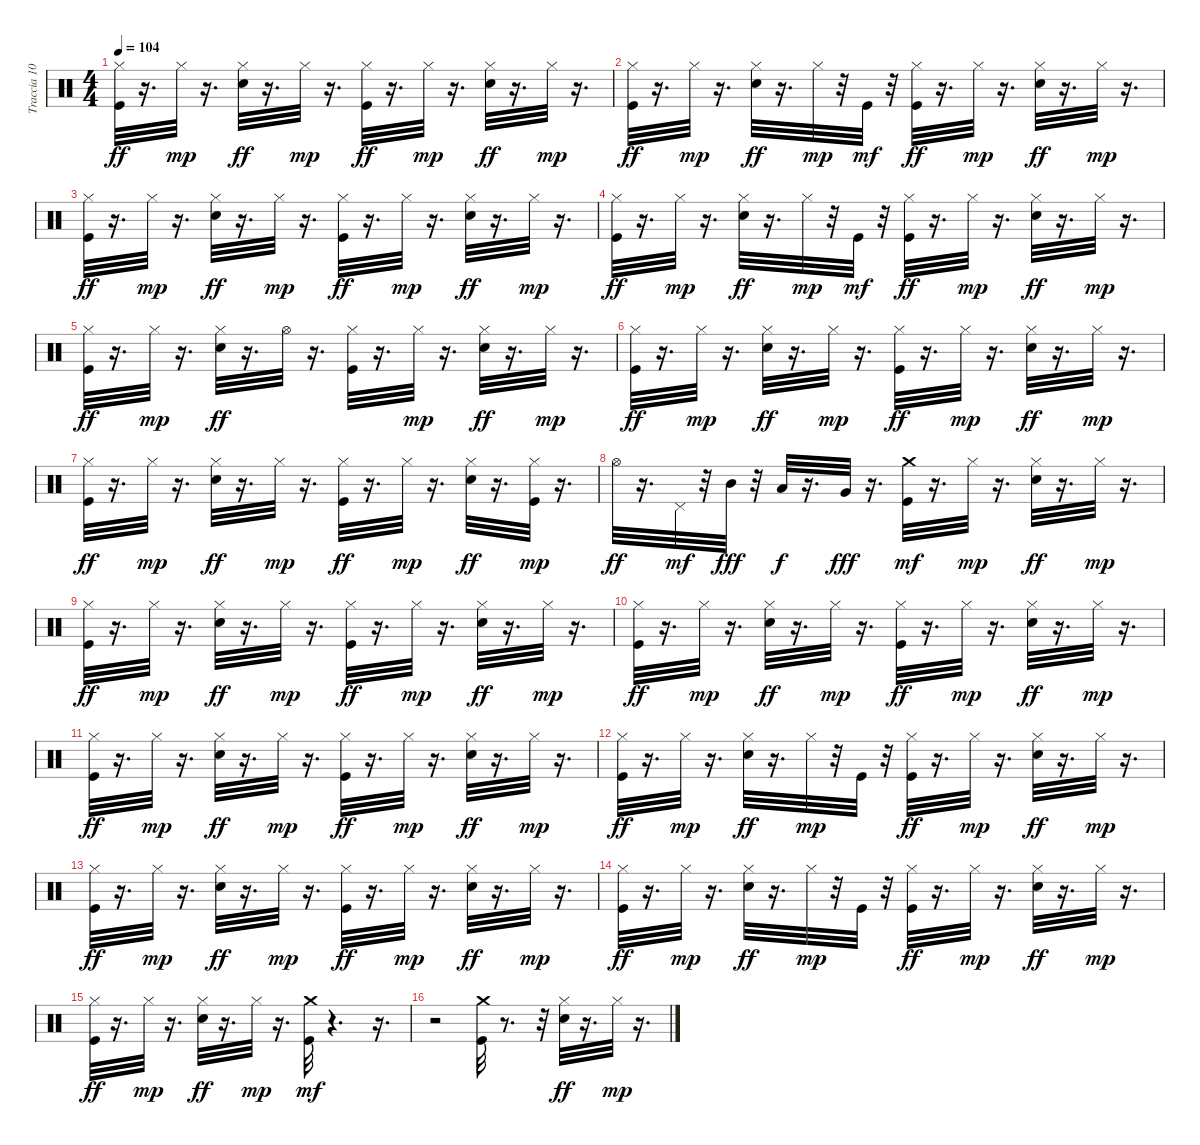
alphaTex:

\track ("Traccia 10" "Traccia 10") {instrument percussion}
\staff {score}
\articulation defaults
\ts (4 4)
\tempo 104
\clef neutral
\ks c
("Kick (hit)" "Hi-Hat (closed)").32{dy ff} r.16{d} "Hi-Hat (closed)".32{dy mp} r.16{d} ("Snare (hit) 2" "Hi-Hat (closed)").32{dy ff} r.16{d} "Hi-Hat (closed)".32{dy mp} r.16{d} ("Kick (hit)" "Hi-Hat (closed)").32{dy ff} r.16{d} "Hi-Hat (closed)".32{dy mp} r.16{d} ("Snare (hit) 2" "Hi-Hat (closed)").32{dy ff} r.16{d} "Hi-Hat (closed)".32{dy mp} r.16{d} |
("Kick (hit)" "Hi-Hat (closed)").32{dy ff} r.16{d} "Hi-Hat (closed)".32{dy mp} r.16{d} ("Snare (hit) 2" "Hi-Hat (closed)").32{dy ff} r.16{d} "Hi-Hat (closed)".32{dy mp} r.32 "Kick (hit)".32{dy mf} r.32 ("Kick (hit)" "Hi-Hat (closed)").32{dy ff} r.16{d} "Hi-Hat (closed)".32{dy mp} r.16{d} ("Snare (hit) 2" "Hi-Hat (closed)").32{dy ff} r.16{d} "Hi-Hat (closed)".32{dy mp} r.16{d} |
("Kick (hit)" "Hi-Hat (closed)").32{dy ff} r.16{d} "Hi-Hat (closed)".32{dy mp} r.16{d} ("Snare (hit) 2" "Hi-Hat (closed)").32{dy ff} r.16{d} "Hi-Hat (closed)".32{dy mp} r.16{d} ("Kick (hit)" "Hi-Hat (closed)").32{dy ff} r.16{d} "Hi-Hat (closed)".32{dy mp} r.16{d} ("Snare (hit) 2" "Hi-Hat (closed)").32{dy ff} r.16{d} "Hi-Hat (closed)".32{dy mp} r.16{d} |
("Kick (hit)" "Hi-Hat (closed)").32{dy ff} r.16{d} "Hi-Hat (closed)".32{dy mp} r.16{d} ("Snare (hit) 2" "Hi-Hat (closed)").32{dy ff} r.16{d} "Hi-Hat (closed)".32{dy mp} r.32 "Kick (hit)".32{dy mf} r.32 ("Kick (hit)" "Hi-Hat (closed)").32{dy ff} r.16{d} "Hi-Hat (closed)".32{dy mp} r.16{d} ("Snare (hit) 2" "Hi-Hat (closed)").32{dy ff} r.16{d} "Hi-Hat (closed)".32{dy mp} r.16{d} |
("Kick (hit)" "Hi-Hat (closed)").32{dy ff} r.16{d} "Hi-Hat (closed)".32{dy mp} r.16{d} ("Snare (hit) 2" "Hi-Hat (closed)").32{dy ff} r.16{d} "Hi-Hat (open)".32 r.16{d} ("Kick (hit)" "Hi-Hat (closed)").32 r.16{d} "Hi-Hat (closed)".32{dy mp} r.16{d} ("Snare (hit) 2" "Hi-Hat (closed)").32{dy ff} r.16{d} "Hi-Hat (closed)".32{dy mp} r.16{d} |
("Kick (hit)" "Hi-Hat (closed)").32{dy ff} r.16{d} "Hi-Hat (closed)".32{dy mp} r.16{d} ("Snare (hit) 2" "Hi-Hat (closed)").32{dy ff} r.16{d} "Hi-Hat (closed)".32{dy mp} r.16{d} ("Kick (hit)" "Hi-Hat (closed)").32{dy ff} r.16{d} "Hi-Hat (closed)".32{dy mp} r.16{d} ("Snare (hit) 2" "Hi-Hat (closed)").32{dy ff} r.16{d} "Hi-Hat (closed)".32{dy mp} r.16{d} |
("Kick (hit)" "Hi-Hat (closed)").32{dy ff} r.16{d} "Hi-Hat (closed)".32{dy mp} r.16{d} ("Snare (hit) 2" "Hi-Hat (closed)").32{dy ff} r.16{d} "Hi-Hat (closed)".32{dy mp} r.16{d} ("Kick (hit)" "Hi-Hat (closed)").32{dy ff} r.16{d} "Hi-Hat (closed)".32{dy mp} r.16{d} ("Snare (hit) 2" "Hi-Hat (closed)").32{dy ff} r.16{d} ("Kick (hit)" "Hi-Hat (closed)").32{dy mp} r.16{d} |
"Hi-Hat (open)".32{dy ff} r.16{d} "Pedal Hi-Hat (hit)".32{dy mf} r.32 "Mid Tom (hit)".32{dy fff} r.32 "Low Tom (hit)".32{dy f} r.16{d} "Very Low Tom (hit)".32{dy fff} r.16{d} ("Kick (hit)" "Crash medium (hit)").32{dy mf} r.16{d} "Hi-Hat (closed)".32{dy mp} r.16{d} ("Snare (hit) 2" "Hi-Hat (closed)").32{dy ff} r.16{d} "Hi-Hat (closed)".32{dy mp} r.16{d} |
("Kick (hit)" "Hi-Hat (closed)").32{dy ff} r.16{d} "Hi-Hat (closed)".32{dy mp} r.16{d} ("Snare (hit) 2" "Hi-Hat (closed)").32{dy ff} r.16{d} "Hi-Hat (closed)".32{dy mp} r.16{d} ("Kick (hit)" "Hi-Hat (closed)").32{dy ff} r.16{d} "Hi-Hat (closed)".32{dy mp} r.16{d} ("Snare (hit) 2" "Hi-Hat (closed)").32{dy ff} r.16{d} "Hi-Hat (closed)".32{dy mp} r.16{d} |
("Kick (hit)" "Hi-Hat (closed)").32{dy ff} r.16{d} "Hi-Hat (closed)".32{dy mp} r.16{d} ("Snare (hit) 2" "Hi-Hat (closed)").32{dy ff} r.16{d} "Hi-Hat (closed)".32{dy mp} r.16{d} ("Kick (hit)" "Hi-Hat (closed)").32{dy ff} r.16{d} "Hi-Hat (closed)".32{dy mp} r.16{d} ("Snare (hit) 2" "Hi-Hat (closed)").32{dy ff} r.16{d} "Hi-Hat (closed)".32{dy mp} r.16{d} |
("Kick (hit)" "Hi-Hat (closed)").32{dy ff} r.16{d} "Hi-Hat (closed)".32{dy mp} r.16{d} ("Snare (hit) 2" "Hi-Hat (closed)").32{dy ff} r.16{d} "Hi-Hat (closed)".32{dy mp} r.16{d} ("Kick (hit)" "Hi-Hat (closed)").32{dy ff} r.16{d} "Hi-Hat (closed)".32{dy mp} r.16{d} ("Snare (hit) 2" "Hi-Hat (closed)").32{dy ff} r.16{d} "Hi-Hat (closed)".32{dy mp} r.16{d} |
("Kick (hit)" "Hi-Hat (closed)").32{dy ff} r.16{d} "Hi-Hat (closed)".32{dy mp} r.16{d} ("Snare (hit) 2" "Hi-Hat (closed)").32{dy ff} r.16{d} "Hi-Hat (closed)".32{dy mp} r.32 "Kick (hit)".32 r.32 ("Kick (hit)" "Hi-Hat (closed)").32{dy ff} r.16{d} "Hi-Hat (closed)".32{dy mp} r.16{d} ("Snare (hit) 2" "Hi-Hat (closed)").32{dy ff} r.16{d} "Hi-Hat (closed)".32{dy mp} r.16{d} |
("Kick (hit)" "Hi-Hat (closed)").32{dy ff} r.16{d} "Hi-Hat (closed)".32{dy mp} r.16{d} ("Snare (hit) 2" "Hi-Hat (closed)").32{dy ff} r.16{d} "Hi-Hat (closed)".32{dy mp} r.16{d} ("Kick (hit)" "Hi-Hat (closed)").32{dy ff} r.16{d} "Hi-Hat (closed)".32{dy mp} r.16{d} ("Snare (hit) 2" "Hi-Hat (closed)").32{dy ff} r.16{d} "Hi-Hat (closed)".32{dy mp} r.16{d} |
("Kick (hit)" "Hi-Hat (closed)").32{dy ff} r.16{d} "Hi-Hat (closed)".32{dy mp} r.16{d} ("Snare (hit) 2" "Hi-Hat (closed)").32{dy ff} r.16{d} "Hi-Hat (closed)".32{dy mp} r.32 "Kick (hit)".32 r.32 ("Kick (hit)" "Hi-Hat (closed)").32{dy ff} r.16{d} "Hi-Hat (closed)".32{dy mp} r.16{d} ("Snare (hit) 2" "Hi-Hat (closed)").32{dy ff} r.16{d} "Hi-Hat (closed)".32{dy mp} r.16{d} |
("Kick (hit)" "Hi-Hat (closed)").32{dy ff} r.16{d} "Hi-Hat (closed)".32{dy mp} r.16{d} ("Snare (hit) 2" "Hi-Hat (closed)").32{dy ff} r.16{d} "Hi-Hat (closed)".32{dy mp} r.16{d} ("Kick (hit)" "Crash medium (hit)").32{dy mf} r.4{d} r.16{d} |
r.2 ("Kick (hit)" "Crash medium (hit)").32 r.8{d} r.32 ("Snare (hit) 2" "Hi-Hat (closed)").32{dy ff} r.16{d} "Hi-Hat (closed)".32{dy mp} r.16{d}
